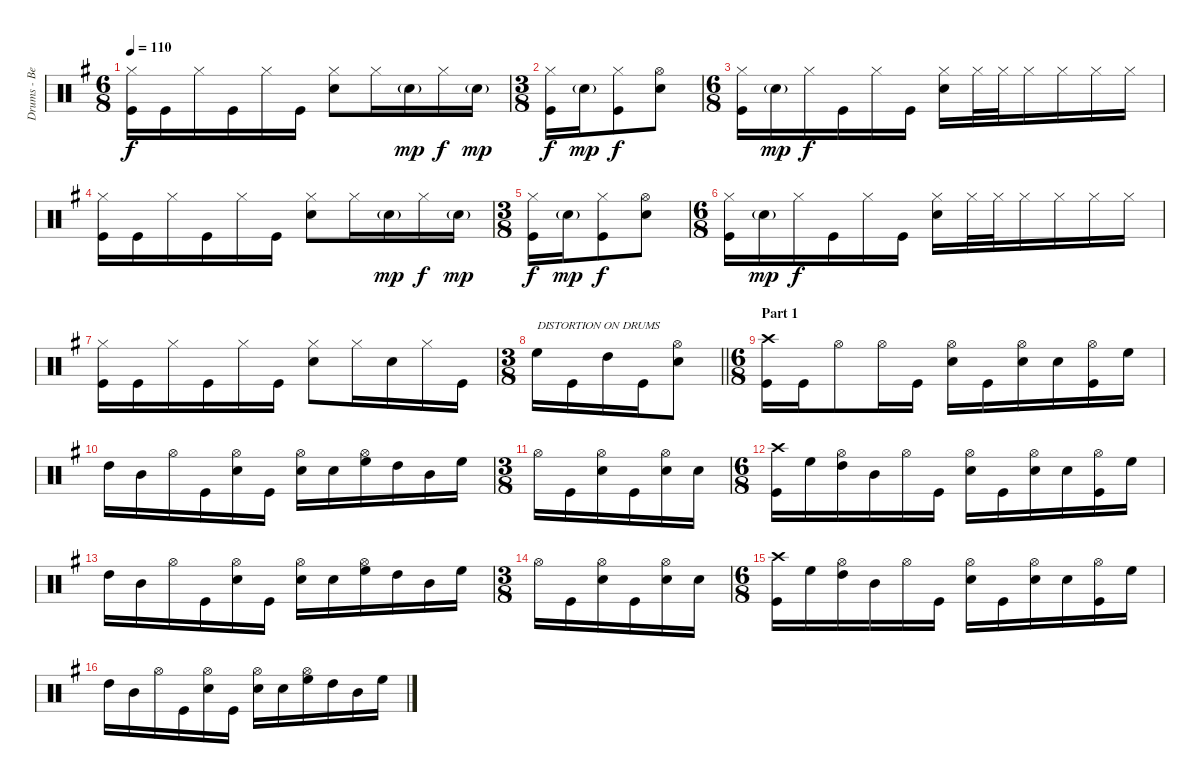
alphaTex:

\track ("Drums - Ben Johnston" "Drums - Be") {instrument percussion}
\staff {score}
\articulation defaults
\ts (6 8)
\tempo 110
\clef neutral
\ks g
("Hi-Hat (closed)" "Kick (hit)").16{dy f} "Kick (hit)".16 "Hi-Hat (closed)".16 "Kick (hit)".16 "Hi-Hat (closed)".16 "Kick (hit)".16 ("Hi-Hat (closed)" "Snare (hit) 2").8 "Hi-Hat (closed)".16 "Snare (hit) 2"{g}.16{dy mp} "Hi-Hat (closed)".16{dy f} "Snare (hit) 2"{g}.16{dy mp} |
\ts (3 8)
("Hi-Hat (closed)" "Kick (hit)").16{dy f} "Snare (hit) 2"{g}.16{dy mp} ("Hi-Hat (closed)" "Kick (hit)").8{dy f} ("Hi-Hat (open)" "Snare (hit) 2").8 |
\ts (6 8)
("Hi-Hat (closed)" "Kick (hit)").16 "Snare (hit) 2"{g}.16{dy mp} "Hi-Hat (closed)".16{dy f} "Kick (hit)".16 "Hi-Hat (closed)".16 "Kick (hit)".16 ("Hi-Hat (closed)" "Snare (hit) 2").16 "Hi-Hat (closed)".32 "Hi-Hat (closed)".32 "Hi-Hat (closed)".16 "Hi-Hat (closed)".16 "Hi-Hat (closed)".16 "Hi-Hat (closed)".16 |
("Hi-Hat (closed)" "Kick (hit)").16 "Kick (hit)".16 "Hi-Hat (closed)".16 "Kick (hit)".16 "Hi-Hat (closed)".16 "Kick (hit)".16 ("Hi-Hat (closed)" "Snare (hit) 2").8 "Hi-Hat (closed)".16 "Snare (hit) 2"{g}.16{dy mp} "Hi-Hat (closed)".16{dy f} "Snare (hit) 2"{g}.16{dy mp} |
\ts (3 8)
("Hi-Hat (closed)" "Kick (hit)").16{dy f} "Snare (hit) 2"{g}.16{dy mp} ("Hi-Hat (closed)" "Kick (hit)").8{dy f} ("Hi-Hat (open)" "Snare (hit) 2").8 |
\ts (6 8)
("Hi-Hat (closed)" "Kick (hit)").16 "Snare (hit) 2"{g}.16{dy mp} "Hi-Hat (closed)".16{dy f} "Kick (hit)".16 "Hi-Hat (closed)".16 "Kick (hit)".16 ("Hi-Hat (closed)" "Snare (hit) 2").16 "Hi-Hat (closed)".32 "Hi-Hat (closed)".32 "Hi-Hat (closed)".16 "Hi-Hat (closed)".16 "Hi-Hat (closed)".16 "Hi-Hat (closed)".16 |
("Hi-Hat (closed)" "Kick (hit)").16 "Kick (hit)".16 "Hi-Hat (closed)".16 "Kick (hit)".16 "Hi-Hat (closed)".16 "Kick (hit)".16 ("Hi-Hat (closed)" "Snare (hit) 2").8 "Hi-Hat (closed)".16 "Snare (hit) 2".16 "Hi-Hat (closed)".16 "Kick (hit)".16 |
\ts (3 8)
\barLineRight lightlight "High Floor Tom (hit)".16{txt "DISTORTION ON DRUMS"} "Kick (hit)".16 "High Tom (hit)".16 "Kick (hit)".16
("Hi-Hat (open)" "Snare (hit) 2").8 |
\ts (6 8)
\section ("" "Part 1")
("Crash high (hit)" "Kick (hit)").16{volume 16} "Kick (hit)".16 "Hi-Hat (open)".8 "Hi-Hat (open)".16 "Kick (hit)".16 ("Hi-Hat (open)" "Snare (hit) 2").16 "Kick (hit)".16 ("Hi-Hat (open)" "Snare (hit) 2").16 "Snare (hit) 2".16 ("Hi-Hat (open)" "Kick (hit)").16 "High Floor Tom (hit)".16 |
"High Tom (hit)".16 "Mid Tom (hit)".16 "Hi-Hat (open)".16 "Kick (hit)".16 ("Hi-Hat (open)" "Snare (hit) 2").16 "Kick (hit)".16 ("Hi-Hat (open)" "Snare (hit) 2").16 "Snare (hit) 2".16 ("Hi-Hat (open)" "High Floor Tom (hit)").16 "High Tom (hit)".16 "Mid Tom (hit)".16 "High Floor Tom (hit)".16 |
\ts (3 8)
"Hi-Hat (open)".16 "Kick (hit)".16 ("Hi-Hat (open)" "Snare (hit) 2").16 "Kick (hit)".16 ("Hi-Hat (open)" "Snare (hit) 2").16 "Snare (hit) 2".16 |
\ts (6 8)
("Crash high (hit)" "Kick (hit)").16 "High Floor Tom (hit)".16 ("Hi-Hat (open)" "High Tom (hit)").16 "Mid Tom (hit)".16 "Hi-Hat (open)".16 "Kick (hit)".16 ("Hi-Hat (open)" "Snare (hit) 2").16 "Kick (hit)".16 ("Hi-Hat (open)" "Snare (hit) 2").16 "Snare (hit) 2".16 ("Hi-Hat (open)" "Kick (hit)").16 "High Floor Tom (hit)".16 |
"High Tom (hit)".16 "Mid Tom (hit)".16 "Hi-Hat (open)".16 "Kick (hit)".16 ("Hi-Hat (open)" "Snare (hit) 2").16 "Kick (hit)".16 ("Hi-Hat (open)" "Snare (hit) 2").16 "Snare (hit) 2".16 ("Hi-Hat (open)" "High Floor Tom (hit)").16 "High Tom (hit)".16 "Mid Tom (hit)".16 "High Floor Tom (hit)".16 |
\ts (3 8)
"Hi-Hat (open)".16 "Kick (hit)".16 ("Hi-Hat (open)" "Snare (hit) 2").16 "Kick (hit)".16 ("Hi-Hat (open)" "Snare (hit) 2").16 "Snare (hit) 2".16 |
\ts (6 8)
("Crash high (hit)" "Kick (hit)").16 "High Floor Tom (hit)".16 ("Hi-Hat (open)" "High Tom (hit)").16 "Mid Tom (hit)".16 "Hi-Hat (open)".16 "Kick (hit)".16 ("Hi-Hat (open)" "Snare (hit) 2").16 "Kick (hit)".16 ("Hi-Hat (open)" "Snare (hit) 2").16 "Snare (hit) 2".16 ("Hi-Hat (open)" "Kick (hit)").16 "High Floor Tom (hit)".16 |
"High Tom (hit)".16 "Mid Tom (hit)".16 "Hi-Hat (open)".16 "Kick (hit)".16 ("Hi-Hat (open)" "Snare (hit) 2").16 "Kick (hit)".16 ("Hi-Hat (open)" "Snare (hit) 2").16 "Snare (hit) 2".16 ("Hi-Hat (open)" "High Floor Tom (hit)").16 "High Tom (hit)".16 "Mid Tom (hit)".16 "High Floor Tom (hit)".16
